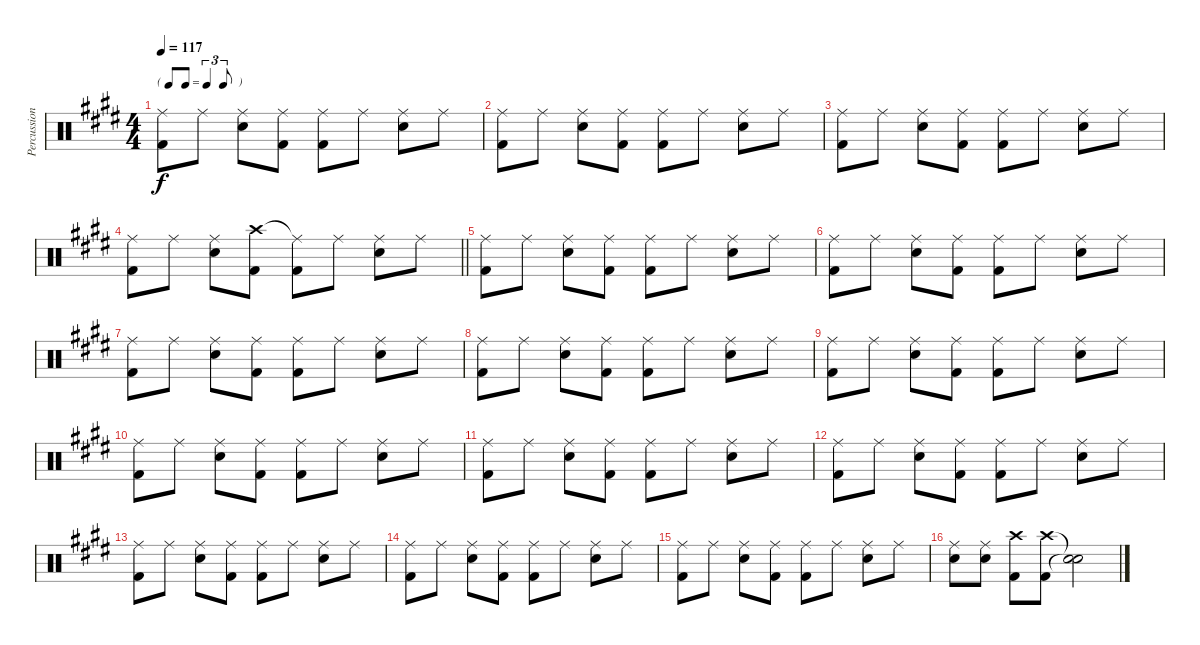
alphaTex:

\track ("Percussion" "Percussion") {instrument percussion}
\staff {score}
\articulation defaults
\ts (4 4)
\tf triplet8th
\tempo 117
\clef neutral
\ks e
("Ride (middle)" "Kick (hit) 2").8{dy f} "Ride (middle)".8 ("Ride (middle)" "Snare (hit) 2").8 ("Ride (middle)" "Kick (hit) 2").8 ("Ride (middle)" "Kick (hit) 2").8 "Ride (middle)".8 ("Ride (middle)" "Snare (hit) 2").8 "Ride (middle)".8 |
("Ride (middle)" "Kick (hit) 2").8 "Ride (middle)".8 ("Ride (middle)" "Snare (hit) 2").8 ("Ride (middle)" "Kick (hit) 2").8 ("Ride (middle)" "Kick (hit) 2").8 "Ride (middle)".8 ("Ride (middle)" "Snare (hit) 2").8 "Ride (middle)".8 |
("Ride (middle)" "Kick (hit) 2").8 "Ride (middle)".8 ("Ride (middle)" "Snare (hit) 2").8 ("Ride (middle)" "Kick (hit) 2").8 ("Ride (middle)" "Kick (hit) 2").8 "Ride (middle)".8 ("Ride (middle)" "Snare (hit) 2").8 "Ride (middle)".8 |
\barLineRight lightlight
("Ride (middle)" "Kick (hit) 2").8 "Ride (middle)".8 ("Ride (middle)" "Snare (hit) 2").8 ("Crash high (hit)" "Kick (hit) 2").8 ("Ride (middle)"{t} "Kick (hit) 2").8 "Ride (middle)".8 ("Ride (middle)" "Snare (hit) 2").8 "Ride (middle)".8 |
("Ride (middle)" "Kick (hit) 2").8 "Ride (middle)".8 ("Ride (middle)" "Snare (hit) 2").8 ("Ride (middle)" "Kick (hit) 2").8 ("Ride (middle)" "Kick (hit) 2").8 "Ride (middle)".8 ("Ride (middle)" "Snare (hit) 2").8 "Ride (middle)".8 |
("Ride (middle)" "Kick (hit) 2").8 "Ride (middle)".8 ("Ride (middle)" "Snare (hit) 2").8 ("Ride (middle)" "Kick (hit) 2").8 ("Ride (middle)" "Kick (hit) 2").8 "Ride (middle)".8 ("Ride (middle)" "Snare (hit) 2").8 "Ride (middle)".8 |
("Ride (middle)" "Kick (hit) 2").8 "Ride (middle)".8 ("Ride (middle)" "Snare (hit) 2").8 ("Ride (middle)" "Kick (hit) 2").8 ("Ride (middle)" "Kick (hit) 2").8 "Ride (middle)".8 ("Ride (middle)" "Snare (hit) 2").8 "Ride (middle)".8 |
("Ride (middle)" "Kick (hit) 2").8 "Ride (middle)".8 ("Ride (middle)" "Snare (hit) 2").8 ("Ride (middle)" "Kick (hit) 2").8 ("Ride (middle)" "Kick (hit) 2").8 "Ride (middle)".8 ("Ride (middle)" "Snare (hit) 2").8 "Ride (middle)".8 |
("Ride (middle)" "Kick (hit) 2").8 "Ride (middle)".8 ("Ride (middle)" "Snare (hit) 2").8 ("Ride (middle)" "Kick (hit) 2").8 ("Ride (middle)" "Kick (hit) 2").8 "Ride (middle)".8 ("Ride (middle)" "Snare (hit) 2").8 "Ride (middle)".8 |
("Ride (middle)" "Kick (hit) 2").8 "Ride (middle)".8 ("Ride (middle)" "Snare (hit) 2").8 ("Ride (middle)" "Kick (hit) 2").8 ("Ride (middle)" "Kick (hit) 2").8 "Ride (middle)".8 ("Ride (middle)" "Snare (hit) 2").8 "Ride (middle)".8 |
("Ride (middle)" "Kick (hit) 2").8 "Ride (middle)".8 ("Ride (middle)" "Snare (hit) 2").8 ("Ride (middle)" "Kick (hit) 2").8 ("Ride (middle)" "Kick (hit) 2").8 "Ride (middle)".8 ("Ride (middle)" "Snare (hit) 2").8 "Ride (middle)".8 |
("Ride (middle)" "Kick (hit) 2").8 "Ride (middle)".8 ("Ride (middle)" "Snare (hit) 2").8 ("Ride (middle)" "Kick (hit) 2").8 ("Ride (middle)" "Kick (hit) 2").8 "Ride (middle)".8 ("Ride (middle)" "Snare (hit) 2").8 "Ride (middle)".8 |
("Ride (middle)" "Kick (hit) 2").8 "Ride (middle)".8 ("Ride (middle)" "Snare (hit) 2").8 ("Ride (middle)" "Kick (hit) 2").8 ("Ride (middle)" "Kick (hit) 2").8 "Ride (middle)".8 ("Ride (middle)" "Snare (hit) 2").8 "Ride (middle)".8 |
("Ride (middle)" "Kick (hit) 2").8 "Ride (middle)".8 ("Ride (middle)" "Snare (hit) 2").8 ("Ride (middle)" "Kick (hit) 2").8 ("Ride (middle)" "Kick (hit) 2").8 "Ride (middle)".8 ("Ride (middle)" "Snare (hit) 2").8 "Ride (middle)".8 |
("Ride (middle)" "Kick (hit) 2").8 "Ride (middle)".8 ("Ride (middle)" "Snare (hit) 2").8 ("Ride (middle)" "Kick (hit) 2").8 ("Ride (middle)" "Kick (hit) 2").8 "Ride (middle)".8 ("Ride (middle)" "Snare (hit) 2").8 "Ride (middle)".8 |
("Ride (middle)" "Snare (hit) 2").8 ("Ride (middle)" "Snare (hit) 2").8 ("Crash high (hit)" "Kick (hit) 2").8 ("Crash high (hit)" "Kick (hit) 2").8 ("Snare (hit)"{t} "Snare (hit)"{t}).2
